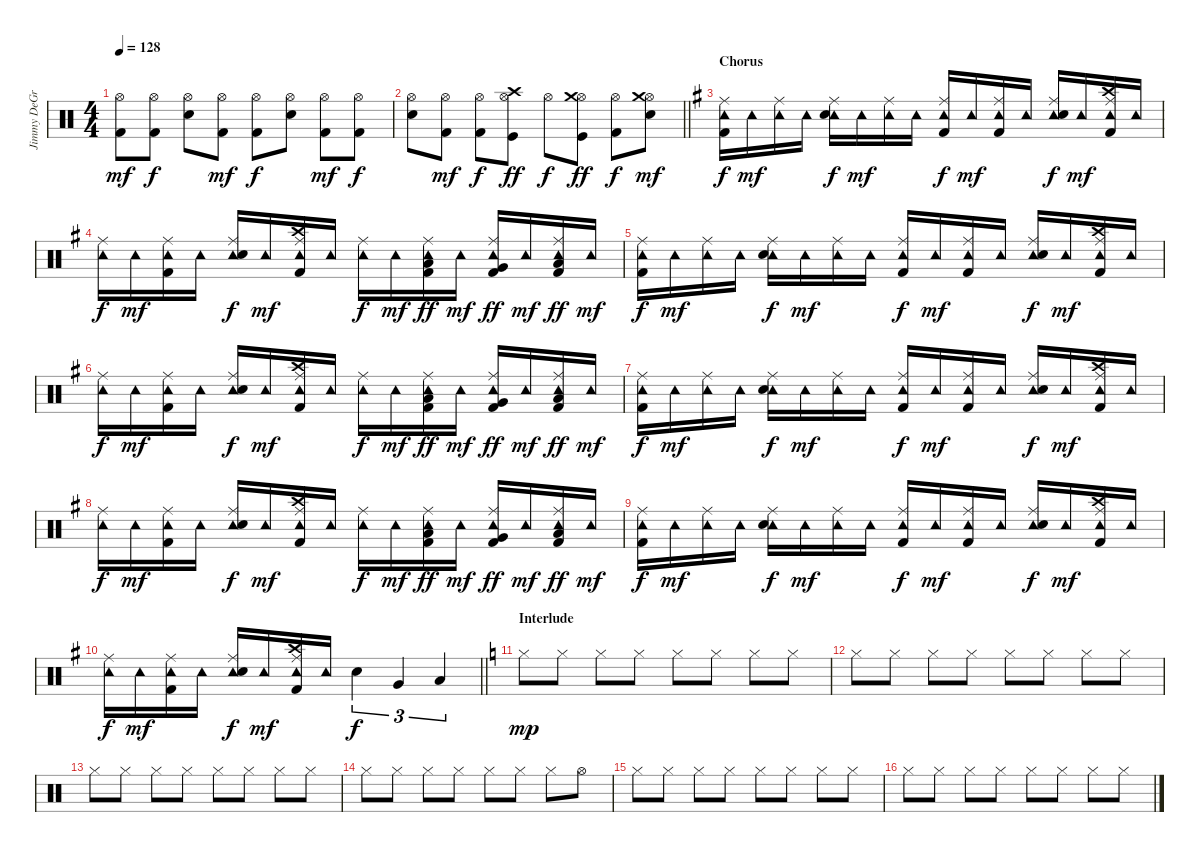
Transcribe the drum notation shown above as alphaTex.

\track ("Jimmy DeGrasso" "Jimmy DeGr") {instrument percussion}
\staff {score}
\articulation defaults
\ts (4 4)
\tempo 128
\clef neutral
\ks c
("Hi-Hat (open)" "Kick (hit) 2").8{dy mf} ("Hi-Hat (open)" "Kick (hit) 2").8{dy f} ("Hi-Hat (open)" "Snare (hit) 2").8 ("Hi-Hat (open)" "Kick (hit) 2").8{dy mf} ("Hi-Hat (open)" "Kick (hit) 2").8{dy f} ("Hi-Hat (open)" "Snare (hit) 2").8 ("Hi-Hat (open)" "Kick (hit) 2").8{dy mf} ("Hi-Hat (open)" "Kick (hit) 2").8{dy f} |
\barLineRight lightlight
("Hi-Hat (open)" "Snare (hit) 2").8 ("Hi-Hat (open)" "Kick (hit) 2").8{dy mf} ("Hi-Hat (open)" "Kick (hit) 2").8{dy f} ("Hi-Hat (open)" "Crash high (hit)" "Kick (hit)").8{dy ff} "Hi-Hat (open)".8{dy f} ("Hi-Hat (open)" "Crash medium (hit)" "Kick (hit)").8{dy ff} ("Hi-Hat (open)" "Kick (hit) 2").8{dy f} ("Hi-Hat (open)" "Crash medium (hit)" "Snare (hit) 2").8{dy mf} |
\section ("" "Chorus")
\ks g
("Ride (middle)" "Tambourine (hit)" "Kick (hit) 2").16{dy f} "Tambourine (hit)".16{dy mf} ("Ride (middle)" "Tambourine (hit)").16 "Tambourine (hit)".16 ("Ride (middle)" "Tambourine (hit)" "Snare (hit) 2").16{dy f} "Tambourine (hit)".16{dy mf} ("Ride (middle)" "Tambourine (hit)").16 "Tambourine (hit)".16 ("Ride (middle)" "Tambourine (hit)" "Kick (hit) 2").16{dy f} "Tambourine (hit)".16{dy mf} ("Ride (middle)" "Tambourine (hit)" "Kick (hit) 2").16 "Tambourine (hit)".16 ("Ride (middle)" "Tambourine (hit)" "Snare (hit) 2").16{dy f} "Tambourine (hit)".16{dy mf} ("Ride (middle)" "Tambourine (hit)" "Crash high (hit)" "Kick (hit) 2").16 "Tambourine (hit)".16 |
("Ride (middle)" "Tambourine (hit)").16{dy f} "Tambourine (hit)".16{dy mf} ("Ride (middle)" "Tambourine (hit)" "Kick (hit) 2").16 "Tambourine (hit)".16 ("Ride (middle)" "Tambourine (hit)" "Snare (hit) 2").16{dy f} "Tambourine (hit)".16{dy mf} ("Ride (middle)" "Tambourine (hit)" "Crash high (hit)" "Kick (hit) 2").16 "Tambourine (hit)".16 ("Ride (middle)" "Tambourine (hit)").16{dy f} "Tambourine (hit)".16{dy mf} ("Ride (middle)" "Tambourine (hit)" "Low Tom (hit)" "Kick (hit) 2").16{dy ff} "Tambourine (hit)".16{dy mf} ("Ride (middle)" "Tambourine (hit)" "Very Low Tom (hit)" "Kick (hit) 2").16{dy ff} "Tambourine (hit)".16{dy mf} ("Ride (middle)" "Tambourine (hit)" "Low Floor Tom (hit)" "Kick (hit) 2").16{dy ff} "Tambourine (hit)".16{dy mf} |
("Ride (middle)" "Tambourine (hit)" "Kick (hit) 2").16{dy f} "Tambourine (hit)".16{dy mf} ("Ride (middle)" "Tambourine (hit)").16 "Tambourine (hit)".16 ("Ride (middle)" "Tambourine (hit)" "Snare (hit) 2").16{dy f} "Tambourine (hit)".16{dy mf} ("Ride (middle)" "Tambourine (hit)").16 "Tambourine (hit)".16 ("Ride (middle)" "Tambourine (hit)" "Kick (hit) 2").16{dy f} "Tambourine (hit)".16{dy mf} ("Ride (middle)" "Tambourine (hit)" "Kick (hit) 2").16 "Tambourine (hit)".16 ("Ride (middle)" "Tambourine (hit)" "Snare (hit) 2").16{dy f} "Tambourine (hit)".16{dy mf} ("Ride (middle)" "Tambourine (hit)" "Crash high (hit)" "Kick (hit) 2").16 "Tambourine (hit)".16 |
("Ride (middle)" "Tambourine (hit)").16{dy f} "Tambourine (hit)".16{dy mf} ("Ride (middle)" "Tambourine (hit)" "Kick (hit) 2").16 "Tambourine (hit)".16 ("Ride (middle)" "Tambourine (hit)" "Snare (hit) 2").16{dy f} "Tambourine (hit)".16{dy mf} ("Ride (middle)" "Tambourine (hit)" "Crash high (hit)" "Kick (hit) 2").16 "Tambourine (hit)".16 ("Ride (middle)" "Tambourine (hit)").16{dy f} "Tambourine (hit)".16{dy mf} ("Ride (middle)" "Tambourine (hit)" "Low Tom (hit)" "Kick (hit) 2").16{dy ff} "Tambourine (hit)".16{dy mf} ("Ride (middle)" "Tambourine (hit)" "Very Low Tom (hit)" "Kick (hit) 2").16{dy ff} "Tambourine (hit)".16{dy mf} ("Ride (middle)" "Tambourine (hit)" "Low Floor Tom (hit)" "Kick (hit) 2").16{dy ff} "Tambourine (hit)".16{dy mf} |
("Ride (middle)" "Tambourine (hit)" "Kick (hit) 2").16{dy f} "Tambourine (hit)".16{dy mf} ("Ride (middle)" "Tambourine (hit)").16 "Tambourine (hit)".16 ("Ride (middle)" "Tambourine (hit)" "Snare (hit) 2").16{dy f} "Tambourine (hit)".16{dy mf} ("Ride (middle)" "Tambourine (hit)").16 "Tambourine (hit)".16 ("Ride (middle)" "Tambourine (hit)" "Kick (hit) 2").16{dy f} "Tambourine (hit)".16{dy mf} ("Ride (middle)" "Tambourine (hit)" "Kick (hit) 2").16 "Tambourine (hit)".16 ("Ride (middle)" "Tambourine (hit)" "Snare (hit) 2").16{dy f} "Tambourine (hit)".16{dy mf} ("Ride (middle)" "Tambourine (hit)" "Crash high (hit)" "Kick (hit) 2").16 "Tambourine (hit)".16 |
("Ride (middle)" "Tambourine (hit)").16{dy f} "Tambourine (hit)".16{dy mf} ("Ride (middle)" "Tambourine (hit)" "Kick (hit) 2").16 "Tambourine (hit)".16 ("Ride (middle)" "Tambourine (hit)" "Snare (hit) 2").16{dy f} "Tambourine (hit)".16{dy mf} ("Ride (middle)" "Tambourine (hit)" "Crash high (hit)" "Kick (hit) 2").16 "Tambourine (hit)".16 ("Ride (middle)" "Tambourine (hit)").16{dy f} "Tambourine (hit)".16{dy mf} ("Ride (middle)" "Tambourine (hit)" "Low Tom (hit)" "Kick (hit) 2").16{dy ff} "Tambourine (hit)".16{dy mf} ("Ride (middle)" "Tambourine (hit)" "Very Low Tom (hit)" "Kick (hit) 2").16{dy ff} "Tambourine (hit)".16{dy mf} ("Ride (middle)" "Tambourine (hit)" "Low Floor Tom (hit)" "Kick (hit) 2").16{dy ff} "Tambourine (hit)".16{dy mf} |
("Ride (middle)" "Tambourine (hit)" "Kick (hit) 2").16{dy f} "Tambourine (hit)".16{dy mf} ("Ride (middle)" "Tambourine (hit)").16 "Tambourine (hit)".16 ("Ride (middle)" "Tambourine (hit)" "Snare (hit) 2").16{dy f} "Tambourine (hit)".16{dy mf} ("Ride (middle)" "Tambourine (hit)").16 "Tambourine (hit)".16 ("Ride (middle)" "Tambourine (hit)" "Kick (hit) 2").16{dy f} "Tambourine (hit)".16{dy mf} ("Ride (middle)" "Tambourine (hit)" "Kick (hit) 2").16 "Tambourine (hit)".16 ("Ride (middle)" "Tambourine (hit)" "Snare (hit) 2").16{dy f} "Tambourine (hit)".16{dy mf} ("Ride (middle)" "Tambourine (hit)" "Crash high (hit)" "Kick (hit) 2").16 "Tambourine (hit)".16 |
\barLineRight lightlight
("Ride (middle)" "Tambourine (hit)").16{dy f} "Tambourine (hit)".16{dy mf} ("Ride (middle)" "Tambourine (hit)" "Kick (hit) 2").16 "Tambourine (hit)".16 ("Ride (middle)" "Tambourine (hit)" "Snare (hit) 2").16{dy f} "Tambourine (hit)".16{dy mf} ("Ride (middle)" "Tambourine (hit)" "Crash high (hit)" "Kick (hit) 2").16 "Tambourine (hit)".16 "Snare (hit) 2".4{tu (3 2) dy f} "Very Low Tom (hit)".4{tu (3 2)} "Low Floor Tom (hit)".4{tu (3 2)} |
\section ("" "Interlude")
\ks c "Hi-Hat (closed)".8{dy mp} "Hi-Hat (closed)".8 "Hi-Hat (closed)".8 "Hi-Hat (closed)".8 "Hi-Hat (closed)".8 "Hi-Hat (closed)".8 "Hi-Hat (closed)".8 "Hi-Hat (closed)".8
|
"Hi-Hat (closed)".8 "Hi-Hat (closed)".8 "Hi-Hat (closed)".8 "Hi-Hat (closed)".8 "Hi-Hat (closed)".8 "Hi-Hat (closed)".8 "Hi-Hat (closed)".8 "Hi-Hat (closed)".8 |
"Hi-Hat (closed)".8 "Hi-Hat (closed)".8 "Hi-Hat (closed)".8 "Hi-Hat (closed)".8 "Hi-Hat (closed)".8 "Hi-Hat (closed)".8 "Hi-Hat (closed)".8 "Hi-Hat (closed)".8 |
"Hi-Hat (closed)".8 "Hi-Hat (closed)".8 "Hi-Hat (closed)".8 "Hi-Hat (closed)".8 "Hi-Hat (closed)".8 "Hi-Hat (closed)".8 "Hi-Hat (closed)".8 "Hi-Hat (open)".8 |
"Hi-Hat (closed)".8 "Hi-Hat (closed)".8 "Hi-Hat (closed)".8 "Hi-Hat (closed)".8 "Hi-Hat (closed)".8 "Hi-Hat (closed)".8 "Hi-Hat (closed)".8 "Hi-Hat (closed)".8 |
"Hi-Hat (closed)".8 "Hi-Hat (closed)".8 "Hi-Hat (closed)".8 "Hi-Hat (closed)".8 "Hi-Hat (closed)".8 "Hi-Hat (closed)".8 "Hi-Hat (closed)".8 "Hi-Hat (closed)".8
